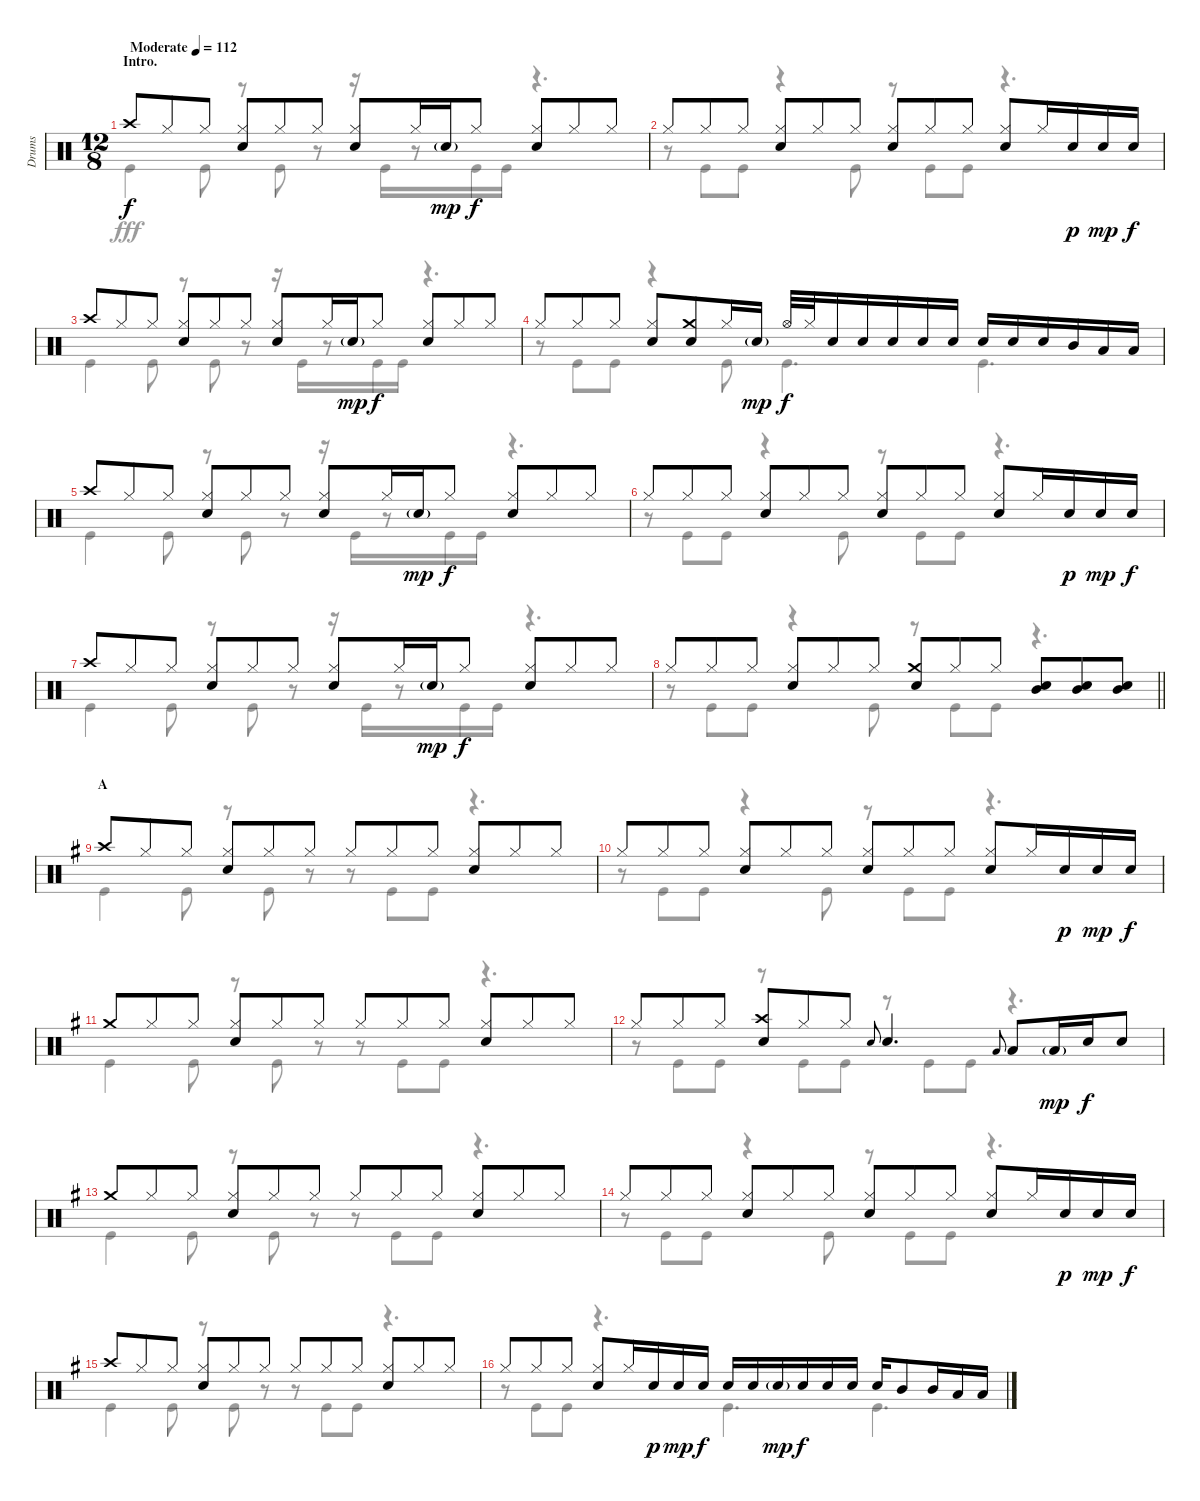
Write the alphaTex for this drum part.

\track ("Drums" "Drums") {instrument percussion}
\staff {score}
\articulation defaults
\voice
\ts (12 8)
\section ("" "Intro.")
\tempo (112 "Moderate")
\clef neutral
\ks c "Crash high (hit)".8{dy f} "Hi-Hat (closed)".8 "Hi-Hat (closed)".8
("Hi-Hat (closed)" "Snare (hit) 2").8 "Hi-Hat (closed)".8 "Hi-Hat (closed)".8 ("Hi-Hat (closed)" "Snare (hit) 2").8 "Hi-Hat (closed)".16 "Snare (hit) 2"{g}.16{dy mp} "Hi-Hat (closed)".8{dy f} ("Hi-Hat (closed)" "Snare (hit) 2").8 "Hi-Hat (closed)".8 "Hi-Hat (closed)".8 |
"Hi-Hat (closed)".8 "Hi-Hat (closed)".8 "Hi-Hat (closed)".8 ("Hi-Hat (closed)" "Snare (hit) 2").8 "Hi-Hat (closed)".8 "Hi-Hat (closed)".8 ("Hi-Hat (closed)" "Snare (hit) 2").8 "Hi-Hat (closed)".8 "Hi-Hat (closed)".8 ("Hi-Hat (closed)" "Snare (hit) 2").8 "Hi-Hat (closed)".16 "Snare (hit) 2".16{dy p} "Snare (hit) 2".16{dy mp} "Snare (hit) 2".16{dy f} |
"Crash high (hit)".8 "Hi-Hat (closed)".8 "Hi-Hat (closed)".8 ("Hi-Hat (closed)" "Snare (hit) 2").8 "Hi-Hat (closed)".8 "Hi-Hat (closed)".8 ("Hi-Hat (closed)" "Snare (hit) 2").8 "Hi-Hat (closed)".16 "Snare (hit) 2"{g}.16{dy mp} "Hi-Hat (closed)".8{dy f} ("Hi-Hat (closed)" "Snare (hit) 2").8 "Hi-Hat (closed)".8 "Hi-Hat (closed)".8 |
"Hi-Hat (closed)".8 "Hi-Hat (closed)".8 "Hi-Hat (closed)".8 ("Hi-Hat (closed)" "Snare (hit) 2").8 ("Crash medium (hit)" "Snare (hit) 2").8 "Hi-Hat (closed)".16 "Snare (hit) 2"{g}.16{dy mp} "Hi-Hat (open)".32{dy f} "Hi-Hat (closed)".32 "Snare (hit) 2".16 "Snare (hit) 2".16 "Snare (hit) 2".16 "Snare (hit) 2".16 "Snare (hit) 2".16 "Snare (hit) 2".16 "Snare (hit) 2".16 "Snare (hit) 2".16 "Mid Tom (hit)".16 "Low Tom (hit)".16 "Low Tom (hit)".16 |
"Crash high (hit)".8 "Hi-Hat (closed)".8 "Hi-Hat (closed)".8 ("Hi-Hat (closed)" "Snare (hit) 2").8 "Hi-Hat (closed)".8 "Hi-Hat (closed)".8 ("Hi-Hat (closed)" "Snare (hit) 2").8 "Hi-Hat (closed)".16 "Snare (hit) 2"{g}.16{dy mp} "Hi-Hat (closed)".8{dy f} ("Hi-Hat (closed)" "Snare (hit) 2").8 "Hi-Hat (closed)".8 "Hi-Hat (closed)".8 |
"Hi-Hat (closed)".8 "Hi-Hat (closed)".8 "Hi-Hat (closed)".8 ("Hi-Hat (closed)" "Snare (hit) 2").8 "Hi-Hat (closed)".8 "Hi-Hat (closed)".8 ("Hi-Hat (closed)" "Snare (hit) 2").8 "Hi-Hat (closed)".8 "Hi-Hat (closed)".8 ("Hi-Hat (closed)" "Snare (hit) 2").8 "Hi-Hat (closed)".16 "Snare (hit) 2".16{dy p} "Snare (hit) 2".16{dy mp} "Snare (hit) 2".16{dy f} |
"Crash high (hit)".8 "Hi-Hat (closed)".8 "Hi-Hat (closed)".8 ("Hi-Hat (closed)" "Snare (hit) 2").8 "Hi-Hat (closed)".8 "Hi-Hat (closed)".8 ("Hi-Hat (closed)" "Snare (hit) 2").8 "Hi-Hat (closed)".16 "Snare (hit) 2"{g}.16{dy mp} "Hi-Hat (closed)".8{dy f} ("Hi-Hat (closed)" "Snare (hit) 2").8 "Hi-Hat (closed)".8 "Hi-Hat (closed)".8 |
\barLineRight lightlight "Hi-Hat (closed)".8 "Hi-Hat (closed)".8 "Hi-Hat (closed)".8
("Hi-Hat (closed)" "Snare (hit) 2").8 "Hi-Hat (closed)".8 "Hi-Hat (closed)".8 ("Crash medium (hit)" "Snare (hit) 2").8 "Hi-Hat (closed)".8 "Hi-Hat (closed)".8 ("Mid Tom (hit)" "Snare (hit) 2").8 ("Mid Tom (hit)" "Snare (hit) 2").8 ("Mid Tom (hit)" "Snare (hit) 2").8 |
\section ("" "A")
\ks g "Crash high (hit)".8 "Hi-Hat (closed)".8 "Hi-Hat (closed)".8
("Hi-Hat (closed)" "Snare (hit) 2").8 "Hi-Hat (closed)".8 "Hi-Hat (closed)".8 "Hi-Hat (closed)".8 "Hi-Hat (closed)".8 "Hi-Hat (closed)".8 ("Hi-Hat (closed)" "Snare (hit) 2").8 "Hi-Hat (closed)".8 "Hi-Hat (closed)".8 |
"Hi-Hat (closed)".8 "Hi-Hat (closed)".8 "Hi-Hat (closed)".8 ("Hi-Hat (closed)" "Snare (hit) 2").8 "Hi-Hat (closed)".8 "Hi-Hat (closed)".8 ("Hi-Hat (closed)" "Snare (hit) 2").8 "Hi-Hat (closed)".8 "Hi-Hat (closed)".8 ("Hi-Hat (closed)" "Snare (hit) 2").8 "Hi-Hat (closed)".16 "Snare (hit) 2".16{dy p} "Snare (hit) 2".16{dy mp} "Snare (hit) 2".16{dy f} |
"Crash medium (hit)".8 "Hi-Hat (closed)".8 "Hi-Hat (closed)".8 ("Hi-Hat (closed)" "Snare (hit) 2").8 "Hi-Hat (closed)".8 "Hi-Hat (closed)".8 "Hi-Hat (closed)".8 "Hi-Hat (closed)".8 "Hi-Hat (closed)".8 ("Hi-Hat (closed)" "Snare (hit) 2").8 "Hi-Hat (closed)".8 "Hi-Hat (closed)".8 |
"Hi-Hat (closed)".8 "Hi-Hat (closed)".8 "Hi-Hat (closed)".8 ("Crash high (hit)" "Snare (hit) 2").8 "Hi-Hat (closed)".8 "Hi-Hat (closed)".8 "Snare (hit) 2".8{gr onbeat} "Snare (hit) 2".4{d} "Low Tom (hit)".8{gr onbeat} "Low Tom (hit)".8 "Low Tom (hit)"{g}.16{dy mp} "Snare (hit) 2".16{dy f} "Snare (hit) 2".8 |
"Crash medium (hit)".8 "Hi-Hat (closed)".8 "Hi-Hat (closed)".8 ("Hi-Hat (closed)" "Snare (hit) 2").8 "Hi-Hat (closed)".8 "Hi-Hat (closed)".8 "Hi-Hat (closed)".8 "Hi-Hat (closed)".8 "Hi-Hat (closed)".8 ("Hi-Hat (closed)" "Snare (hit) 2").8 "Hi-Hat (closed)".8 "Hi-Hat (closed)".8 |
"Hi-Hat (closed)".8 "Hi-Hat (closed)".8 "Hi-Hat (closed)".8 ("Hi-Hat (closed)" "Snare (hit) 2").8 "Hi-Hat (closed)".8 "Hi-Hat (closed)".8 ("Hi-Hat (closed)" "Snare (hit) 2").8 "Hi-Hat (closed)".8 "Hi-Hat (closed)".8 ("Hi-Hat (closed)" "Snare (hit) 2").8 "Hi-Hat (closed)".16 "Snare (hit) 2".16{dy p} "Snare (hit) 2".16{dy mp} "Snare (hit) 2".16{dy f} |
"Crash high (hit)".8 "Hi-Hat (closed)".8 "Hi-Hat (closed)".8 ("Hi-Hat (closed)" "Snare (hit) 2").8 "Hi-Hat (closed)".8 "Hi-Hat (closed)".8 "Hi-Hat (closed)".8 "Hi-Hat (closed)".8 "Hi-Hat (closed)".8 ("Hi-Hat (closed)" "Snare (hit) 2").8 "Hi-Hat (closed)".8 "Hi-Hat (closed)".8 |
"Hi-Hat (closed)".8 "Hi-Hat (closed)".8 "Hi-Hat (closed)".8 ("Hi-Hat (closed)" "Snare (hit) 2").8 "Hi-Hat (closed)".16 "Snare (hit) 2".16{dy p} "Snare (hit) 2".16{dy mp} "Snare (hit) 2".16{dy f} "Snare (hit) 2".16 "Snare (hit) 2".16 "Snare (hit) 2"{g}.16{dy mp} "Snare (hit) 2".16{dy f} "Snare (hit) 2".16 "Snare (hit) 2".16 "Snare (hit) 2".16 "Mid Tom (hit)".8 "Mid Tom (hit)".16 "Low Tom (hit)".16 "Low Tom (hit)".16
\voice
\clef neutral
\ottava regular
\simile none
\ks c "Kick (hit)".4{dy fff} "Kick (hit)".8
r.8 "Kick (hit)".8 r.8 r.16 "Kick (hit)".16 r.8 "Kick (hit)".16 "Kick (hit)".16 r.4{d} |
r.8 "Kick (hit)".8 "Kick (hit)".8 r.4 "Kick (hit)".8 r.8 "Kick (hit)".8 "Kick (hit)".8 r.4{d} |
"Kick (hit)".4 "Kick (hit)".8 r.8 "Kick (hit)".8 r.8 r.16 "Kick (hit)".16 r.8 "Kick (hit)".16 "Kick (hit)".16 r.4{d} |
r.8 "Kick (hit)".8 "Kick (hit)".8 r.4 "Kick (hit)".8 "Kick (hit)".4{d} "Kick (hit)".4{d} |
"Kick (hit)".4 "Kick (hit)".8 r.8 "Kick (hit)".8 r.8 r.16 "Kick (hit)".16 r.8 "Kick (hit)".16 "Kick (hit)".16 r.4{d} |
r.8 "Kick (hit)".8 "Kick (hit)".8 r.4 "Kick (hit)".8 r.8 "Kick (hit)".8 "Kick (hit)".8 r.4{d} |
"Kick (hit)".4 "Kick (hit)".8 r.8 "Kick (hit)".8 r.8 r.16 "Kick (hit)".16 r.8 "Kick (hit)".16 "Kick (hit)".16 r.4{d} |
\barLineRight lightlight
r.8 "Kick (hit)".8 "Kick (hit)".8 r.4 "Kick (hit)".8 r.8 "Kick (hit)".8 "Kick (hit)".8 r.4{d} |
\ks g "Kick (hit)".4 "Kick (hit)".8
r.8 "Kick (hit)".8 r.8 r.8 "Kick (hit)".8 "Kick (hit)".8 r.4{d} |
r.8 "Kick (hit)".8 "Kick (hit)".8 r.4 "Kick (hit)".8 r.8 "Kick (hit)".8 "Kick (hit)".8 r.4{d} |
"Kick (hit)".4 "Kick (hit)".8 r.8 "Kick (hit)".8 r.8 r.8 "Kick (hit)".8 "Kick (hit)".8 r.4{d} |
r.8 "Kick (hit)".8 "Kick (hit)".8 r.8 "Kick (hit)".8 "Kick (hit)".8 r.8 "Kick (hit)".8 "Kick (hit)".8 r.4{d} |
"Kick (hit)".4 "Kick (hit)".8 r.8 "Kick (hit)".8 r.8 r.8 "Kick (hit)".8 "Kick (hit)".8 r.4{d} |
r.8 "Kick (hit)".8 "Kick (hit)".8 r.4 "Kick (hit)".8 r.8 "Kick (hit)".8 "Kick (hit)".8 r.4{d} |
"Kick (hit)".4 "Kick (hit)".8 r.8 "Kick (hit)".8 r.8 r.8 "Kick (hit)".8 "Kick (hit)".8 r.4{d} |
r.8 "Kick (hit)".8 "Kick (hit)".8 r.4{d} "Kick (hit)".4{d} "Kick (hit)".4{d}
